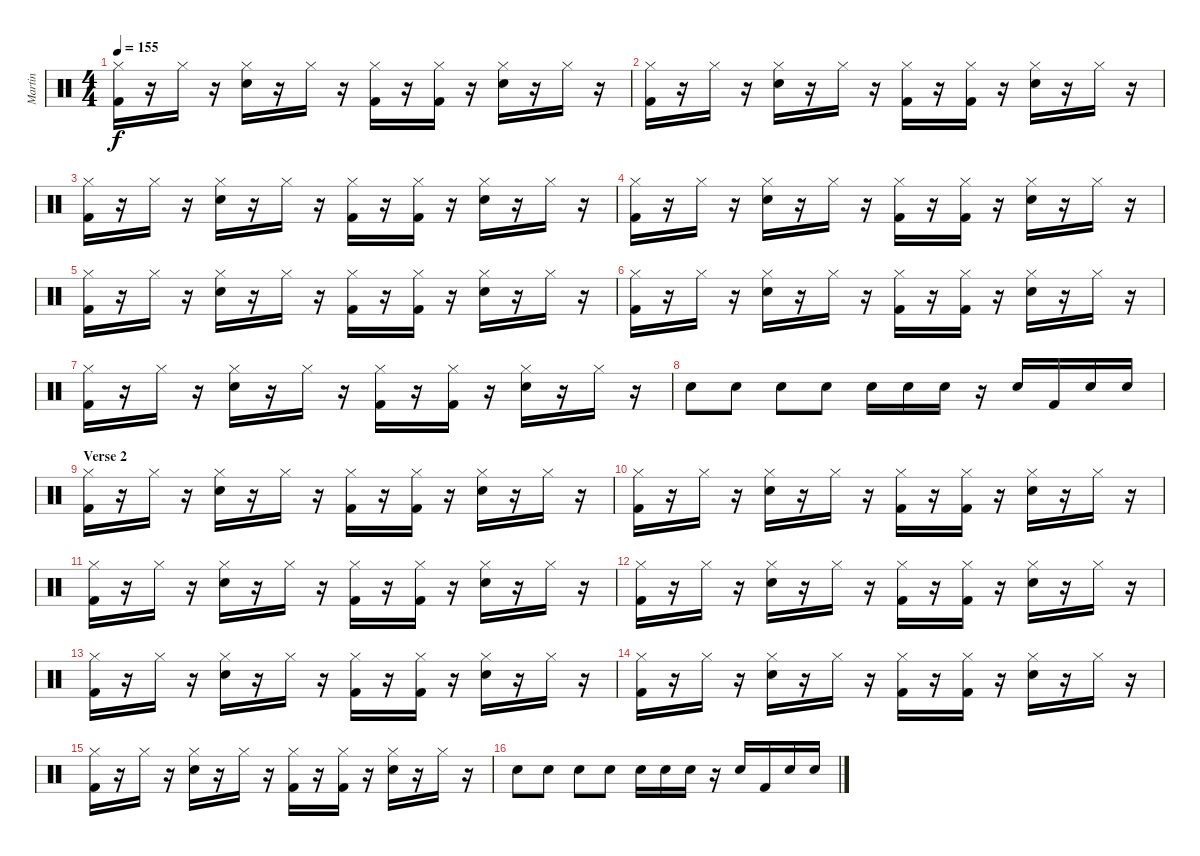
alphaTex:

\track ("Martin" "Martin") {instrument percussion}
\staff {score}
\articulation defaults
\ts (4 4)
\tempo 155
\clef neutral
\ks c
("Kick (hit) 2" "Hi-Hat (closed)").16{dy f} r.16 "Hi-Hat (closed)".16 r.16 ("Electric Snare (hit)" "Hi-Hat (closed)").16 r.16 "Hi-Hat (closed)".16 r.16 ("Kick (hit) 2" "Hi-Hat (closed)").16 r.16 ("Kick (hit) 2" "Hi-Hat (closed)").16 r.16 ("Electric Snare (hit)" "Hi-Hat (closed)").16 r.16 "Hi-Hat (closed)".16 r.16 |
("Kick (hit) 2" "Hi-Hat (closed)").16 r.16 "Hi-Hat (closed)".16 r.16 ("Electric Snare (hit)" "Hi-Hat (closed)").16 r.16 "Hi-Hat (closed)".16 r.16 ("Kick (hit) 2" "Hi-Hat (closed)").16 r.16 ("Kick (hit) 2" "Hi-Hat (closed)").16 r.16 ("Electric Snare (hit)" "Hi-Hat (closed)").16 r.16 "Hi-Hat (closed)".16 r.16 |
("Kick (hit) 2" "Hi-Hat (closed)").16 r.16 "Hi-Hat (closed)".16 r.16 ("Electric Snare (hit)" "Hi-Hat (closed)").16 r.16 "Hi-Hat (closed)".16 r.16 ("Kick (hit) 2" "Hi-Hat (closed)").16 r.16 ("Kick (hit) 2" "Hi-Hat (closed)").16 r.16 ("Electric Snare (hit)" "Hi-Hat (closed)").16 r.16 "Hi-Hat (closed)".16 r.16 |
("Kick (hit) 2" "Hi-Hat (closed)").16 r.16 "Hi-Hat (closed)".16 r.16 ("Electric Snare (hit)" "Hi-Hat (closed)").16 r.16 "Hi-Hat (closed)".16 r.16 ("Kick (hit) 2" "Hi-Hat (closed)").16 r.16 ("Kick (hit) 2" "Hi-Hat (closed)").16 r.16 ("Electric Snare (hit)" "Hi-Hat (closed)").16 r.16 "Hi-Hat (closed)".16 r.16 |
("Kick (hit) 2" "Hi-Hat (closed)").16 r.16 "Hi-Hat (closed)".16 r.16 ("Electric Snare (hit)" "Hi-Hat (closed)").16 r.16 "Hi-Hat (closed)".16 r.16 ("Kick (hit) 2" "Hi-Hat (closed)").16 r.16 ("Kick (hit) 2" "Hi-Hat (closed)").16 r.16 ("Electric Snare (hit)" "Hi-Hat (closed)").16 r.16 "Hi-Hat (closed)".16 r.16 |
("Kick (hit) 2" "Hi-Hat (closed)").16 r.16 "Hi-Hat (closed)".16 r.16 ("Electric Snare (hit)" "Hi-Hat (closed)").16 r.16 "Hi-Hat (closed)".16 r.16 ("Kick (hit) 2" "Hi-Hat (closed)").16 r.16 ("Kick (hit) 2" "Hi-Hat (closed)").16 r.16 ("Electric Snare (hit)" "Hi-Hat (closed)").16 r.16 "Hi-Hat (closed)".16 r.16 |
("Kick (hit) 2" "Hi-Hat (closed)").16 r.16 "Hi-Hat (closed)".16 r.16 ("Electric Snare (hit)" "Hi-Hat (closed)").16 r.16 "Hi-Hat (closed)".16 r.16 ("Kick (hit) 2" "Hi-Hat (closed)").16 r.16 ("Kick (hit) 2" "Hi-Hat (closed)").16 r.16 ("Electric Snare (hit)" "Hi-Hat (closed)").16 r.16 "Hi-Hat (closed)".16 r.16 |
"Electric Snare (hit)".8 "Electric Snare (hit)".8 "Electric Snare (hit)".8 "Electric Snare (hit)".8 "Electric Snare (hit)".16 "Electric Snare (hit)".16 "Electric Snare (hit)".16 r.16 "Electric Snare (hit)".16 "Kick (hit) 2".16 "Electric Snare (hit)".16 "Electric Snare (hit)".16 |
\section ("" "Verse 2")
("Kick (hit) 2" "Hi-Hat (closed)").16 r.16 "Hi-Hat (closed)".16 r.16 ("Electric Snare (hit)" "Hi-Hat (closed)").16 r.16 "Hi-Hat (closed)".16 r.16 ("Kick (hit) 2" "Hi-Hat (closed)").16 r.16 ("Kick (hit) 2" "Hi-Hat (closed)").16 r.16 ("Electric Snare (hit)" "Hi-Hat (closed)").16 r.16 "Hi-Hat (closed)".16 r.16 |
("Kick (hit) 2" "Hi-Hat (closed)").16 r.16 "Hi-Hat (closed)".16 r.16 ("Electric Snare (hit)" "Hi-Hat (closed)").16 r.16 "Hi-Hat (closed)".16 r.16 ("Kick (hit) 2" "Hi-Hat (closed)").16 r.16 ("Kick (hit) 2" "Hi-Hat (closed)").16 r.16 ("Electric Snare (hit)" "Hi-Hat (closed)").16 r.16 "Hi-Hat (closed)".16 r.16 |
("Kick (hit) 2" "Hi-Hat (closed)").16 r.16 "Hi-Hat (closed)".16 r.16 ("Electric Snare (hit)" "Hi-Hat (closed)").16 r.16 "Hi-Hat (closed)".16 r.16 ("Kick (hit) 2" "Hi-Hat (closed)").16 r.16 ("Kick (hit) 2" "Hi-Hat (closed)").16 r.16 ("Electric Snare (hit)" "Hi-Hat (closed)").16 r.16 "Hi-Hat (closed)".16 r.16 |
("Kick (hit) 2" "Hi-Hat (closed)").16 r.16 "Hi-Hat (closed)".16 r.16 ("Electric Snare (hit)" "Hi-Hat (closed)").16 r.16 "Hi-Hat (closed)".16 r.16 ("Kick (hit) 2" "Hi-Hat (closed)").16 r.16 ("Kick (hit) 2" "Hi-Hat (closed)").16 r.16 ("Electric Snare (hit)" "Hi-Hat (closed)").16 r.16 "Hi-Hat (closed)".16 r.16 |
("Kick (hit) 2" "Hi-Hat (closed)").16 r.16 "Hi-Hat (closed)".16 r.16 ("Electric Snare (hit)" "Hi-Hat (closed)").16 r.16 "Hi-Hat (closed)".16 r.16 ("Kick (hit) 2" "Hi-Hat (closed)").16 r.16 ("Kick (hit) 2" "Hi-Hat (closed)").16 r.16 ("Electric Snare (hit)" "Hi-Hat (closed)").16 r.16 "Hi-Hat (closed)".16 r.16 |
("Kick (hit) 2" "Hi-Hat (closed)").16 r.16 "Hi-Hat (closed)".16 r.16 ("Electric Snare (hit)" "Hi-Hat (closed)").16 r.16 "Hi-Hat (closed)".16 r.16 ("Kick (hit) 2" "Hi-Hat (closed)").16 r.16 ("Kick (hit) 2" "Hi-Hat (closed)").16 r.16 ("Electric Snare (hit)" "Hi-Hat (closed)").16 r.16 "Hi-Hat (closed)".16 r.16 |
("Kick (hit) 2" "Hi-Hat (closed)").16 r.16 "Hi-Hat (closed)".16 r.16 ("Electric Snare (hit)" "Hi-Hat (closed)").16 r.16 "Hi-Hat (closed)".16 r.16 ("Kick (hit) 2" "Hi-Hat (closed)").16 r.16 ("Kick (hit) 2" "Hi-Hat (closed)").16 r.16 ("Electric Snare (hit)" "Hi-Hat (closed)").16 r.16 "Hi-Hat (closed)".16 r.16 |
"Electric Snare (hit)".8 "Electric Snare (hit)".8 "Electric Snare (hit)".8 "Electric Snare (hit)".8 "Electric Snare (hit)".16 "Electric Snare (hit)".16 "Electric Snare (hit)".16 r.16 "Electric Snare (hit)".16 "Kick (hit) 2".16 "Electric Snare (hit)".16 "Electric Snare (hit)".16
